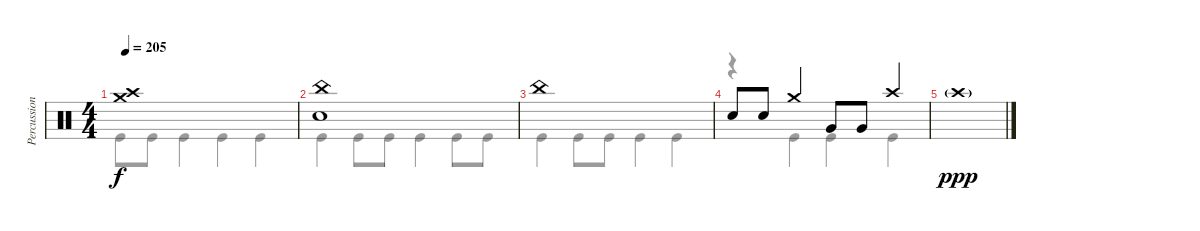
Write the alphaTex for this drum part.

\track ("Percussion" "Percussion") {instrument percussion}
\staff {score}
\articulation defaults
\voice
\ts (4 4)
\tempo 205
\clef neutral
\ks c
("Crash medium (hit)" "Crash high (hit)").1{dy f} |
("China (hit)" "Electric Snare (hit)").1 |
"China (hit)".1 |
"Electric Snare (hit)".8 "Electric Snare (hit)".8 "Crash medium (hit)".4 "Very Low Tom (hit)".8 "Very Low Tom (hit)".8 "Crash high (hit)".4 |
"Crash high (hit)"{g}.1{dy ppp}
\voice
\clef neutral
\ottava regular
\simile none
\ks c "Kick (hit)".8{dy f} "Kick (hit)".8 "Kick (hit)".4 "Kick (hit)".4 "Kick (hit)".4
|
"Kick (hit)".4 "Kick (hit)".8 "Kick (hit)".8 "Kick (hit)".4 "Kick (hit)".8 "Kick (hit)".8 |
"Kick (hit)".4 "Kick (hit)".8 "Kick (hit)".8 "Kick (hit)".4 "Kick (hit)".4 |
r.4 "Kick (hit)".4 "Kick (hit)".4 "Kick (hit)".4 |
